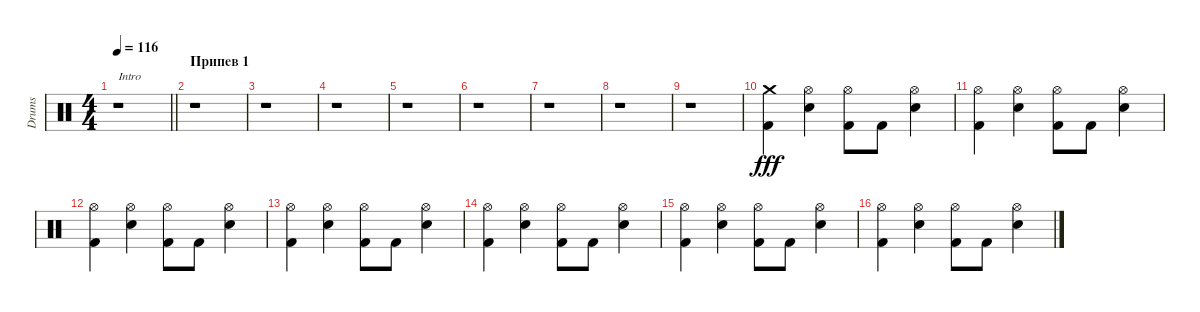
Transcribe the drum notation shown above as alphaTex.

\track ("Drums" "Drums") {instrument percussion}
\staff {score}
\articulation defaults
\ts (4 4)
\tempo 116
\clef neutral
\barLineRight lightlight
\ks c
r.1{txt "Intro" dy fff} |
\section ("" "Припев 1")
r.1 |
r.1 |
r.1 |
r.1 |
r.1 |
r.1 |
r.1 |
r.1 |
("Crash medium (hit)" "Kick (hit) 2").4 ("Hi-Hat (open)" "Snare (hit) 2").4 ("Hi-Hat (open)" "Kick (hit) 2").8 "Kick (hit) 2".8 ("Hi-Hat (open)" "Snare (hit) 2").4 |
("Hi-Hat (open)" "Kick (hit) 2").4 ("Hi-Hat (open)" "Snare (hit) 2").4 ("Hi-Hat (open)" "Kick (hit) 2").8 "Kick (hit) 2".8 ("Hi-Hat (open)" "Snare (hit) 2").4 |
("Hi-Hat (open)" "Kick (hit) 2").4 ("Hi-Hat (open)" "Snare (hit) 2").4 ("Hi-Hat (open)" "Kick (hit) 2").8 "Kick (hit) 2".8 ("Hi-Hat (open)" "Snare (hit) 2").4 |
("Hi-Hat (open)" "Kick (hit) 2").4 ("Hi-Hat (open)" "Snare (hit) 2").4 ("Hi-Hat (open)" "Kick (hit) 2").8 "Kick (hit) 2".8 ("Hi-Hat (open)" "Snare (hit) 2").4 |
("Hi-Hat (open)" "Kick (hit) 2").4 ("Hi-Hat (open)" "Snare (hit) 2").4 ("Hi-Hat (open)" "Kick (hit) 2").8 "Kick (hit) 2".8 ("Hi-Hat (open)" "Snare (hit) 2").4 |
("Hi-Hat (open)" "Kick (hit) 2").4 ("Hi-Hat (open)" "Snare (hit) 2").4 ("Hi-Hat (open)" "Kick (hit) 2").8 "Kick (hit) 2".8 ("Hi-Hat (open)" "Snare (hit) 2").4 |
("Hi-Hat (open)" "Kick (hit) 2").4 ("Hi-Hat (open)" "Snare (hit) 2").4 ("Hi-Hat (open)" "Kick (hit) 2").8 "Kick (hit) 2".8 ("Hi-Hat (open)" "Snare (hit) 2").4
